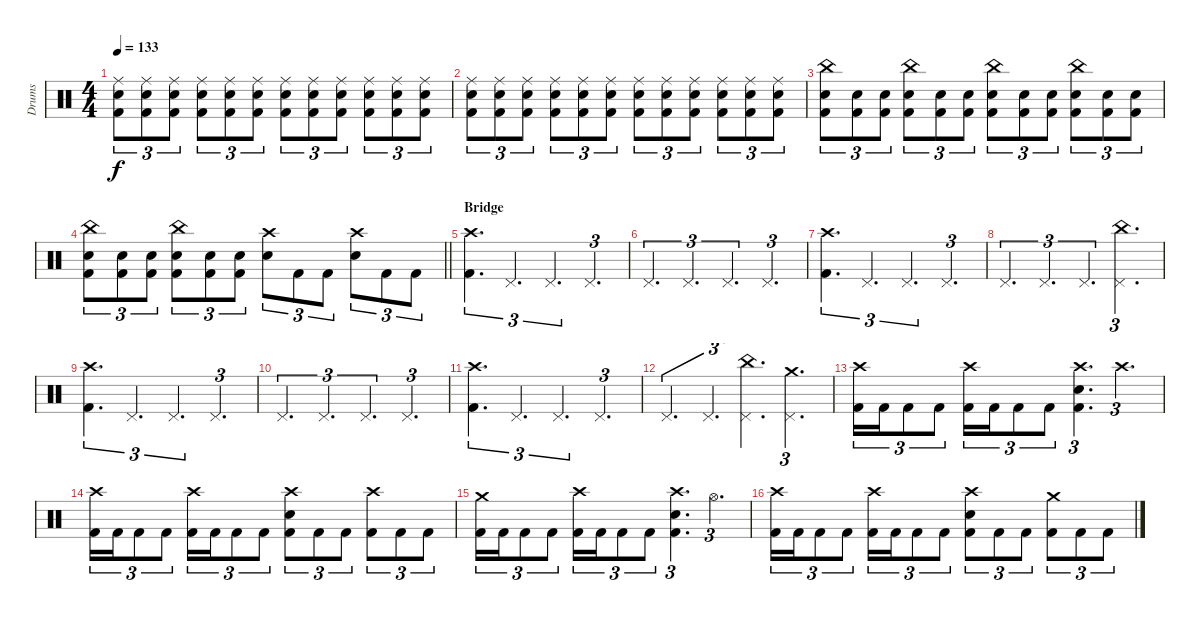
\track ("Drums" "Drums") {instrument percussion}
\staff {score}
\articulation defaults
\ts (4 4)
\tempo 133
\clef neutral
\ks c
("Ride (middle)" "Snare (hit) 2" "Kick (hit) 2").8{tu (3 2) dy f} ("Ride (middle)" "Snare (hit) 2" "Kick (hit) 2").8{tu (3 2)} ("Ride (middle)" "Snare (hit) 2" "Kick (hit) 2").8{tu (3 2)} ("Ride (middle)" "Snare (hit) 2" "Kick (hit) 2").8{tu (3 2)} ("Ride (middle)" "Snare (hit) 2" "Kick (hit) 2").8{tu (3 2)} ("Ride (middle)" "Snare (hit) 2" "Kick (hit) 2").8{tu (3 2)} ("Ride (middle)" "Snare (hit) 2" "Kick (hit) 2").8{tu (3 2)} ("Ride (middle)" "Snare (hit) 2" "Kick (hit) 2").8{tu (3 2)} ("Ride (middle)" "Snare (hit) 2" "Kick (hit) 2").8{tu (3 2)} ("Ride (middle)" "Snare (hit) 2" "Kick (hit) 2").8{tu (3 2)} ("Ride (middle)" "Snare (hit) 2" "Kick (hit) 2").8{tu (3 2)} ("Ride (middle)" "Snare (hit) 2" "Kick (hit) 2").8{tu (3 2)} |
("Ride (middle)" "Snare (hit) 2" "Kick (hit) 2").8{tu (3 2)} ("Ride (middle)" "Snare (hit) 2" "Kick (hit) 2").8{tu (3 2)} ("Ride (middle)" "Snare (hit) 2" "Kick (hit) 2").8{tu (3 2)} ("Ride (middle)" "Snare (hit) 2" "Kick (hit) 2").8{tu (3 2)} ("Ride (middle)" "Snare (hit) 2" "Kick (hit) 2").8{tu (3 2)} ("Ride (middle)" "Snare (hit) 2" "Kick (hit) 2").8{tu (3 2)} ("Ride (middle)" "Snare (hit) 2" "Kick (hit) 2").8{tu (3 2)} ("Ride (middle)" "Snare (hit) 2" "Kick (hit) 2").8{tu (3 2)} ("Ride (middle)" "Snare (hit) 2" "Kick (hit) 2").8{tu (3 2)} ("Ride (middle)" "Snare (hit) 2" "Kick (hit) 2").8{tu (3 2)} ("Ride (middle)" "Snare (hit) 2" "Kick (hit) 2").8{tu (3 2)} ("Ride (middle)" "Snare (hit) 2" "Kick (hit) 2").8{tu (3 2)} |
("China (hit)" "Snare (hit) 2" "Kick (hit) 2").8{tu (3 2)} ("Snare (hit) 2" "Kick (hit) 2").8{tu (3 2)} ("Snare (hit) 2" "Kick (hit) 2").8{tu (3 2)} ("China (hit)" "Snare (hit) 2" "Kick (hit) 2").8{tu (3 2)} ("Snare (hit) 2" "Kick (hit) 2").8{tu (3 2)} ("Snare (hit) 2" "Kick (hit) 2").8{tu (3 2)} ("China (hit)" "Snare (hit) 2" "Kick (hit) 2").8{tu (3 2)} ("Snare (hit) 2" "Kick (hit) 2").8{tu (3 2)} ("Snare (hit) 2" "Kick (hit) 2").8{tu (3 2)} ("China (hit)" "Snare (hit) 2" "Kick (hit) 2").8{tu (3 2)} ("Snare (hit) 2" "Kick (hit) 2").8{tu (3 2)} ("Snare (hit) 2" "Kick (hit) 2").8{tu (3 2)} |
\barLineRight lightlight
("China (hit)" "Snare (hit) 2" "Kick (hit) 2").8{tu (3 2)} ("Snare (hit) 2" "Kick (hit) 2").8{tu (3 2)} ("Snare (hit) 2" "Kick (hit) 2").8{tu (3 2)} ("China (hit)" "Snare (hit) 2" "Kick (hit) 2").8{tu (3 2)} ("Snare (hit) 2" "Kick (hit) 2").8{tu (3 2)} ("Snare (hit) 2" "Kick (hit) 2").8{tu (3 2)} ("Crash high (hit)" "Snare (hit) 2").8{tu (3 2)} "Kick (hit) 2".8{tu (3 2)} "Kick (hit) 2".8{tu (3 2)} ("Crash high (hit)" "Snare (hit) 2").8{tu (3 2)} "Kick (hit) 2".8{tu (3 2)} "Kick (hit) 2".8{tu (3 2)} |
\section ("" "Bridge")
("Crash high (hit)" "Kick (hit) 2").4{d tu (3 2)} "Pedal Hi-Hat (hit)".4{d tu (3 2)} "Pedal Hi-Hat (hit)".4{d tu (3 2)} "Pedal Hi-Hat (hit)".4{d tu (3 2)} |
"Pedal Hi-Hat (hit)".4{d tu (3 2)} "Pedal Hi-Hat (hit)".4{d tu (3 2)} "Pedal Hi-Hat (hit)".4{d tu (3 2)} "Pedal Hi-Hat (hit)".4{d tu (3 2)} |
("Crash high (hit)" "Kick (hit) 2").4{d tu (3 2)} "Pedal Hi-Hat (hit)".4{d tu (3 2)} "Pedal Hi-Hat (hit)".4{d tu (3 2)} "Pedal Hi-Hat (hit)".4{d tu (3 2)} |
"Pedal Hi-Hat (hit)".4{d tu (3 2)} "Pedal Hi-Hat (hit)".4{d tu (3 2)} "Pedal Hi-Hat (hit)".4{d tu (3 2)} ("China (hit)" "Pedal Hi-Hat (hit)").4{d tu (3 2)} |
("Crash high (hit)" "Kick (hit) 2").4{d tu (3 2)} "Pedal Hi-Hat (hit)".4{d tu (3 2)} "Pedal Hi-Hat (hit)".4{d tu (3 2)} "Pedal Hi-Hat (hit)".4{d tu (3 2)} |
"Pedal Hi-Hat (hit)".4{d tu (3 2)} "Pedal Hi-Hat (hit)".4{d tu (3 2)} "Pedal Hi-Hat (hit)".4{d tu (3 2)} "Pedal Hi-Hat (hit)".4{d tu (3 2)} |
("Crash high (hit)" "Kick (hit) 2").4{d tu (3 2)} "Pedal Hi-Hat (hit)".4{d tu (3 2)} "Pedal Hi-Hat (hit)".4{d tu (3 2)} "Pedal Hi-Hat (hit)".4{d tu (3 2)} |
"Pedal Hi-Hat (hit)".4{d tu (3 2)} "Pedal Hi-Hat (hit)".4{d tu (3 2)} ("China (hit)" "Pedal Hi-Hat (hit)").4{d tu (3 2)} ("Crash medium (hit)" "Pedal Hi-Hat (hit)").4{d tu (3 2)} |
("Crash high (hit)" "Kick (hit) 2").16{tu (3 2)} "Kick (hit) 2".16{tu (3 2)} "Kick (hit) 2".8{tu (3 2)} "Kick (hit) 2".8{tu (3 2)} ("Crash high (hit)" "Kick (hit) 2").16{tu (3 2)} "Kick (hit) 2".16{tu (3 2)} "Kick (hit) 2".8{tu (3 2)} "Kick (hit) 2".8{tu (3 2)} ("Crash high (hit)" "Snare (hit) 2" "Kick (hit) 2").4{d tu (3 2)} "Crash high (hit)".4{d tu (3 2)} |
("Crash high (hit)" "Kick (hit) 2").16{tu (3 2)} "Kick (hit) 2".16{tu (3 2)} "Kick (hit) 2".8{tu (3 2)} "Kick (hit) 2".8{tu (3 2)} ("Crash high (hit)" "Kick (hit) 2").16{tu (3 2)} "Kick (hit) 2".16{tu (3 2)} "Kick (hit) 2".8{tu (3 2)} "Kick (hit) 2".8{tu (3 2)} ("Crash high (hit)" "Snare (hit) 2" "Kick (hit) 2").8{tu (3 2)} "Kick (hit) 2".8{tu (3 2)} "Kick (hit) 2".8{tu (3 2)} ("Crash high (hit)" "Kick (hit) 2").8{tu (3 2)} "Kick (hit) 2".8{tu (3 2)} "Kick (hit) 2".8{tu (3 2)} |
("Crash medium (hit)" "Kick (hit) 2").16{tu (3 2)} "Kick (hit) 2".16{tu (3 2)} "Kick (hit) 2".8{tu (3 2)} "Kick (hit) 2".8{tu (3 2)} ("Crash high (hit)" "Kick (hit) 2").16{tu (3 2)} "Kick (hit) 2".16{tu (3 2)} "Kick (hit) 2".8{tu (3 2)} "Kick (hit) 2".8{tu (3 2)} ("Crash high (hit)" "Snare (hit) 2" "Kick (hit) 2").4{d tu (3 2)} "Hi-Hat (open)".4{d tu (3 2)} |
("Crash high (hit)" "Kick (hit) 2").16{tu (3 2)} "Kick (hit) 2".16{tu (3 2)} "Kick (hit) 2".8{tu (3 2)} "Kick (hit) 2".8{tu (3 2)} ("Crash high (hit)" "Kick (hit) 2").16{tu (3 2)} "Kick (hit) 2".16{tu (3 2)} "Kick (hit) 2".8{tu (3 2)} "Kick (hit) 2".8{tu (3 2)} ("Crash high (hit)" "Snare (hit) 2" "Kick (hit) 2").8{tu (3 2)} "Kick (hit) 2".8{tu (3 2)} "Kick (hit) 2".8{tu (3 2)} ("Crash medium (hit)" "Kick (hit) 2").8{tu (3 2)} "Kick (hit) 2".8{tu (3 2)} "Kick (hit) 2".8{tu (3 2)}
